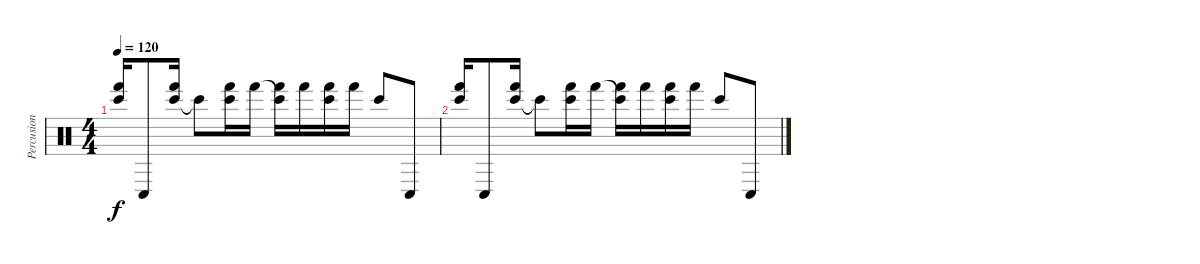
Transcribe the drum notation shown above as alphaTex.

\track ("Percusion" "Percusion") {instrument percussion}
\staff {score}
\articulation defaults
\ts (4 4)
\tempo 120
\clef neutral
\ks c
("Bongo High (hit)" "Hand (hit)").16{dy f} "Conga low (hit)".8 ("Bongo High (hit)" "Hand (hit)").16 "Bongo High (hit)"{t}.8 ("Bongo High (hit)" "Hand (hit)").16 "Hand (hit)".16 ("Bongo High (hit)"{t} "Hand (hit)").16 "Hand (hit)".16 ("Bongo High (hit)" "Hand (hit)").16 "Hand (hit)".16 "Bongo High (hit)".8 "Conga low (hit)".8 |
("Bongo High (hit)" "Hand (hit)").16 "Conga low (hit)".8 ("Bongo High (hit)" "Hand (hit)").16 "Bongo High (hit)"{t}.8 ("Bongo High (hit)" "Hand (hit)").16 "Hand (hit)".16 ("Bongo High (hit)"{t} "Hand (hit)").16 "Hand (hit)".16 ("Bongo High (hit)" "Hand (hit)").16 "Hand (hit)".16 "Bongo High (hit)".8 "Conga low (hit)".8
